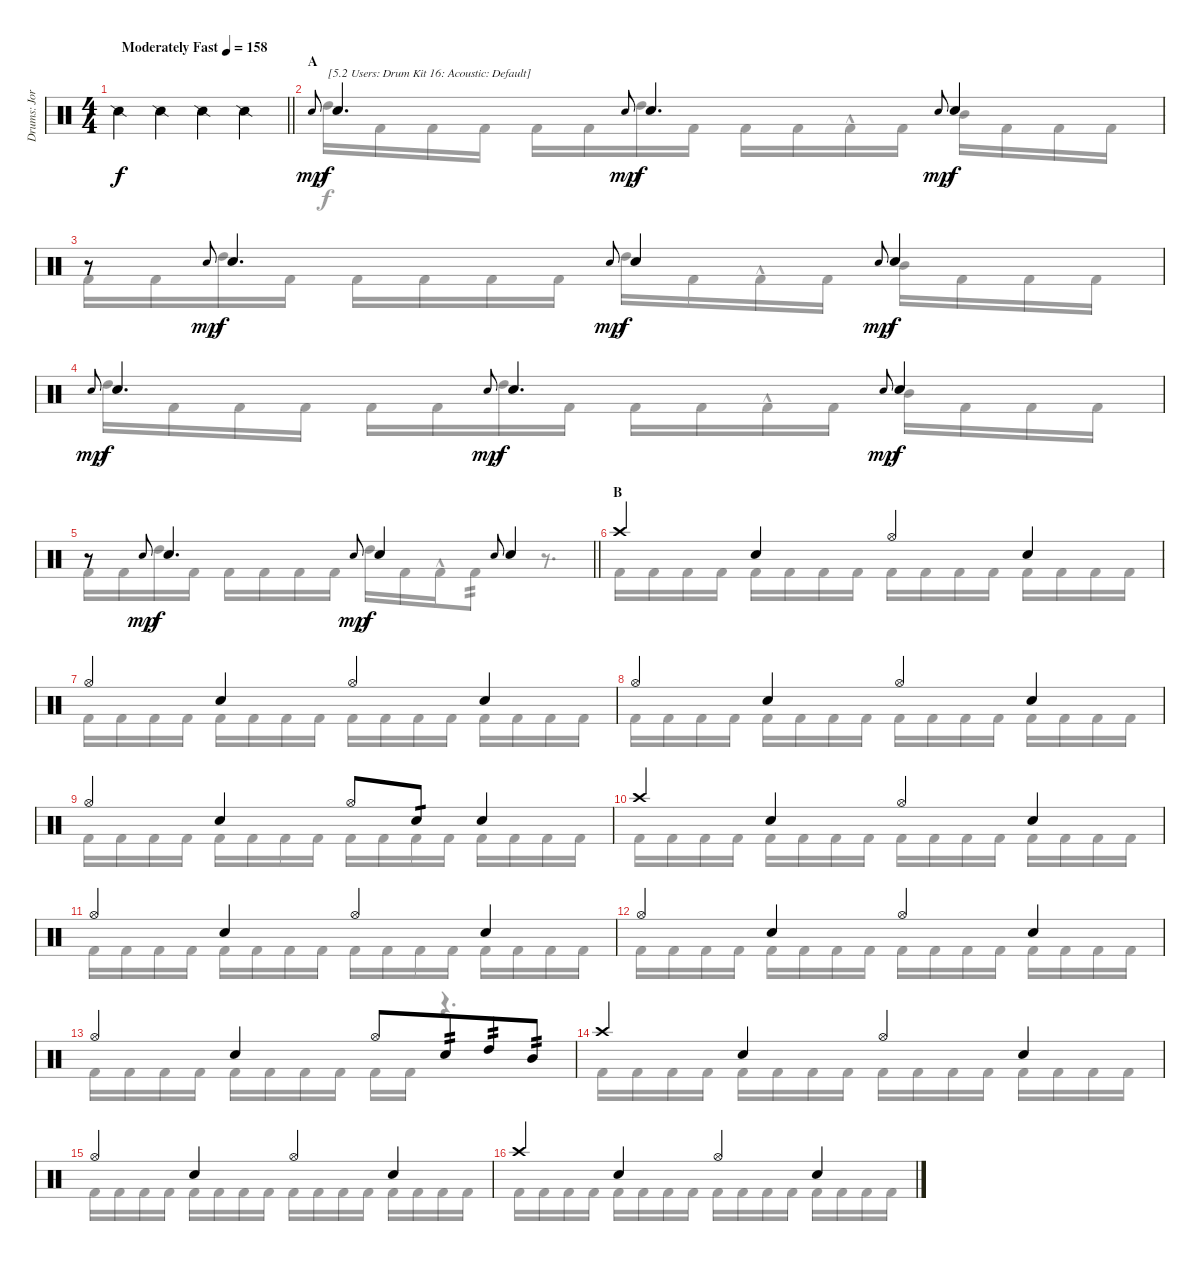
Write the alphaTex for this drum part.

\track ("Drums: Jorg" "Drums: Jor") {instrument percussion}
\staff {score}
\articulation defaults
\voice
\ts (4 4)
\tempo (158 "Moderately Fast")
\clef neutral
\barLineRight lightlight
\ks c "Snare (side stick) 2".4{dy f} "Snare (side stick) 2".4 "Snare (side stick) 2".4 "Snare (side stick) 2".4
|
\section ("" "A")
"Snare (hit) 2".8{gr onbeat dy mp} "Electric Snare (hit)".4{d txt "[5.2 Users: Drum Kit 16: Acoustic: Default]" dy f} "Snare (hit) 2".8{gr onbeat dy mp} "Electric Snare (hit)".4{d dy f} "Snare (hit) 2".8{gr onbeat dy mp} "Electric Snare (hit)".4{dy f} |
r.8 "Snare (hit) 2".8{gr onbeat dy mp} "Electric Snare (hit)".4{d dy f} "Snare (hit) 2".8{gr onbeat dy mp} "Electric Snare (hit)".4{dy f} "Snare (hit) 2".8{gr onbeat dy mp} "Electric Snare (hit)".4{dy f} |
"Snare (hit) 2".8{gr onbeat dy mp} "Electric Snare (hit)".4{d dy f} "Snare (hit) 2".8{gr onbeat dy mp} "Electric Snare (hit)".4{d dy f} "Snare (hit) 2".8{gr onbeat dy mp} "Electric Snare (hit)".4{dy f} |
\barLineRight lightlight
r.8 "Snare (hit) 2".8{gr onbeat dy mp} "Electric Snare (hit)".4{d dy f} "Snare (hit) 2".8{gr onbeat dy mp} "Electric Snare (hit)".4{dy f} "Electric Snare (hit)".8{gr onbeat} "Snare (hit) 2".4 |
\section ("" "B")
"Crash high (hit)".4 "Snare (hit) 2".4 "Hi-Hat (open)".4 "Snare (hit) 2".4 |
"Hi-Hat (open)".4 "Snare (hit) 2".4 "Hi-Hat (open)".4 "Snare (hit) 2".4 |
"Hi-Hat (open)".4 "Snare (hit) 2".4 "Hi-Hat (open)".4 "Snare (hit) 2".4 |
"Hi-Hat (open)".4 "Snare (hit) 2".4 "Hi-Hat (open)".8 "Snare (hit) 2".8{tp 1} "Snare (hit) 2".4 |
"Crash high (hit)".4 "Snare (hit) 2".4 "Hi-Hat (open)".4 "Snare (hit) 2".4 |
"Hi-Hat (open)".4 "Snare (hit) 2".4 "Hi-Hat (open)".4 "Snare (hit) 2".4 |
"Hi-Hat (open)".4 "Snare (hit) 2".4 "Hi-Hat (open)".4 "Snare (hit) 2".4 |
"Hi-Hat (open)".4 "Snare (hit) 2".4 "Hi-Hat (open)".8 "Snare (hit) 2".8{tp 2 beam merge} "High Tom (hit)".8{tp 2} "Mid Tom (hit)".8{tp 2} |
"Crash high (hit)".4 "Snare (hit) 2".4 "Hi-Hat (open)".4 "Snare (hit) 2".4 |
"Hi-Hat (open)".4 "Snare (hit) 2".4 "Hi-Hat (open)".4 "Snare (hit) 2".4 |
"Crash high (hit)".4 "Snare (hit) 2".4 "Hi-Hat (open)".4 "Snare (hit) 2".4
\voice
\clef neutral
\ottava regular
\simile none
\barLineRight lightlight
\ks c
|
"High Tom (hit)".16 "Kick (hit) 2".16 "Kick (hit) 2".16 "Kick (hit) 2".16 "Kick (hit) 2".16 "Kick (hit) 2".16 "High Tom (hit)".16 "Kick (hit) 2".16 "Kick (hit) 2".16 "Kick (hit) 2".16 "Kick (hit) 2"{hac}.16 "Kick (hit) 2".16 "Mid Tom (hit)".16 "Kick (hit) 2".16 "Kick (hit) 2".16 "Kick (hit) 2".16 |
"Kick (hit) 2".16 "Kick (hit) 2".16 "High Tom (hit)".16 "Kick (hit) 2".16 "Kick (hit) 2".16 "Kick (hit) 2".16 "Kick (hit) 2".16 "Kick (hit) 2".16 "High Tom (hit)".16 "Kick (hit) 2".16 "Kick (hit) 2"{hac}.16 "Kick (hit) 2".16 "Mid Tom (hit)".16 "Kick (hit) 2".16 "Kick (hit) 2".16 "Kick (hit) 2".16 |
"High Tom (hit)".16 "Kick (hit) 2".16 "Kick (hit) 2".16 "Kick (hit) 2".16 "Kick (hit) 2".16 "Kick (hit) 2".16 "High Tom (hit)".16 "Kick (hit) 2".16 "Kick (hit) 2".16 "Kick (hit) 2".16 "Kick (hit) 2"{hac}.16 "Kick (hit) 2".16 "Mid Tom (hit)".16 "Kick (hit) 2".16 "Kick (hit) 2".16 "Kick (hit) 2".16 |
\barLineRight lightlight "Kick (hit) 2".16 "Kick (hit) 2".16 "High Tom (hit)".16 "Kick (hit) 2".16 "Kick (hit) 2".16 "Kick (hit) 2".16 "Kick (hit) 2".16 "Kick (hit) 2".16 "High Tom (hit)".16 "Kick (hit) 2".16 "Kick (hit) 2"{hac}.16 "Kick (hit) 2".8{tp 2}
r.8{d} |
"Kick (hit) 2".16 "Kick (hit) 2".16 "Kick (hit) 2".16 "Kick (hit) 2".16 "Kick (hit) 2".16 "Kick (hit) 2".16 "Kick (hit) 2".16 "Kick (hit) 2".16 "Kick (hit) 2".16 "Kick (hit) 2".16 "Kick (hit) 2".16 "Kick (hit) 2".16 "Kick (hit) 2".16 "Kick (hit) 2".16 "Kick (hit) 2".16 "Kick (hit) 2".16 |
"Kick (hit) 2".16 "Kick (hit) 2".16 "Kick (hit) 2".16 "Kick (hit) 2".16 "Kick (hit) 2".16 "Kick (hit) 2".16 "Kick (hit) 2".16 "Kick (hit) 2".16 "Kick (hit) 2".16 "Kick (hit) 2".16 "Kick (hit) 2".16 "Kick (hit) 2".16 "Kick (hit) 2".16 "Kick (hit) 2".16 "Kick (hit) 2".16 "Kick (hit) 2".16 |
"Kick (hit) 2".16 "Kick (hit) 2".16 "Kick (hit) 2".16 "Kick (hit) 2".16 "Kick (hit) 2".16 "Kick (hit) 2".16 "Kick (hit) 2".16 "Kick (hit) 2".16 "Kick (hit) 2".16 "Kick (hit) 2".16 "Kick (hit) 2".16 "Kick (hit) 2".16 "Kick (hit) 2".16 "Kick (hit) 2".16 "Kick (hit) 2".16 "Kick (hit) 2".16 |
"Kick (hit) 2".16 "Kick (hit) 2".16 "Kick (hit) 2".16 "Kick (hit) 2".16 "Kick (hit) 2".16 "Kick (hit) 2".16 "Kick (hit) 2".16 "Kick (hit) 2".16 "Kick (hit) 2".16 "Kick (hit) 2".16 "Kick (hit) 2".16 "Kick (hit) 2".16 "Kick (hit) 2".16 "Kick (hit) 2".16 "Kick (hit) 2".16 "Kick (hit) 2".16 |
"Kick (hit) 2".16 "Kick (hit) 2".16 "Kick (hit) 2".16 "Kick (hit) 2".16 "Kick (hit) 2".16 "Kick (hit) 2".16 "Kick (hit) 2".16 "Kick (hit) 2".16 "Kick (hit) 2".16 "Kick (hit) 2".16 "Kick (hit) 2".16 "Kick (hit) 2".16 "Kick (hit) 2".16 "Kick (hit) 2".16 "Kick (hit) 2".16 "Kick (hit) 2".16 |
"Kick (hit) 2".16 "Kick (hit) 2".16 "Kick (hit) 2".16 "Kick (hit) 2".16 "Kick (hit) 2".16 "Kick (hit) 2".16 "Kick (hit) 2".16 "Kick (hit) 2".16 "Kick (hit) 2".16 "Kick (hit) 2".16 "Kick (hit) 2".16 "Kick (hit) 2".16 "Kick (hit) 2".16 "Kick (hit) 2".16 "Kick (hit) 2".16 "Kick (hit) 2".16 |
"Kick (hit) 2".16 "Kick (hit) 2".16 "Kick (hit) 2".16 "Kick (hit) 2".16 "Kick (hit) 2".16 "Kick (hit) 2".16 "Kick (hit) 2".16 "Kick (hit) 2".16 "Kick (hit) 2".16 "Kick (hit) 2".16 "Kick (hit) 2".16 "Kick (hit) 2".16 "Kick (hit) 2".16 "Kick (hit) 2".16 "Kick (hit) 2".16 "Kick (hit) 2".16 |
"Kick (hit) 2".16 "Kick (hit) 2".16 "Kick (hit) 2".16 "Kick (hit) 2".16 "Kick (hit) 2".16 "Kick (hit) 2".16 "Kick (hit) 2".16 "Kick (hit) 2".16 "Kick (hit) 2".16 "Kick (hit) 2".16 r.4{d} |
"Kick (hit) 2".16 "Kick (hit) 2".16 "Kick (hit) 2".16 "Kick (hit) 2".16 "Kick (hit) 2".16 "Kick (hit) 2".16 "Kick (hit) 2".16 "Kick (hit) 2".16 "Kick (hit) 2".16 "Kick (hit) 2".16 "Kick (hit) 2".16 "Kick (hit) 2".16 "Kick (hit) 2".16 "Kick (hit) 2".16 "Kick (hit) 2".16 "Kick (hit) 2".16 |
"Kick (hit) 2".16 "Kick (hit) 2".16 "Kick (hit) 2".16 "Kick (hit) 2".16 "Kick (hit) 2".16 "Kick (hit) 2".16 "Kick (hit) 2".16 "Kick (hit) 2".16 "Kick (hit) 2".16 "Kick (hit) 2".16 "Kick (hit) 2".16 "Kick (hit) 2".16 "Kick (hit) 2".16 "Kick (hit) 2".16 "Kick (hit) 2".16 "Kick (hit) 2".16 |
"Kick (hit) 2".16 "Kick (hit) 2".16 "Kick (hit) 2".16 "Kick (hit) 2".16 "Kick (hit) 2".16 "Kick (hit) 2".16 "Kick (hit) 2".16 "Kick (hit) 2".16 "Kick (hit) 2".16 "Kick (hit) 2".16 "Kick (hit) 2".16 "Kick (hit) 2".16 "Kick (hit) 2".16 "Kick (hit) 2".16 "Kick (hit) 2".16 "Kick (hit) 2".16
